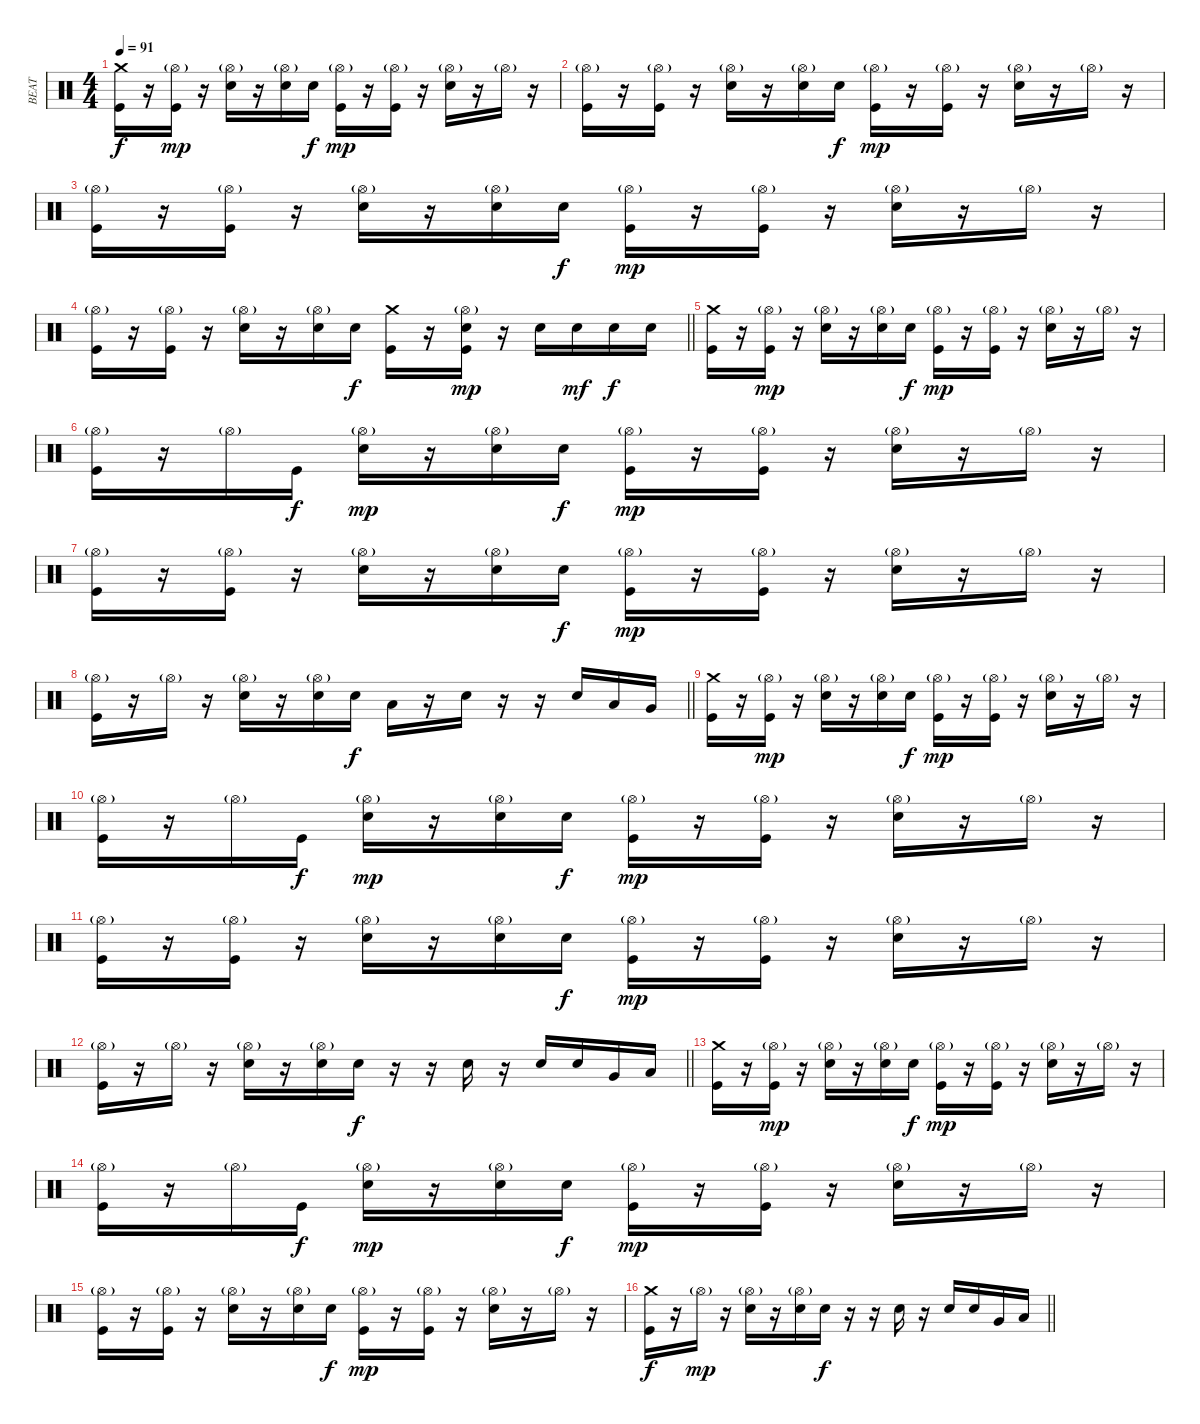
\track ("BEAT" "BEAT") {instrument percussion}
\staff {score}
\articulation defaults
\ts (4 4)
\section ("" "")
\tempo 91
\clef neutral
\ks c
("Crash medium (hit)" "Kick (hit)").16{dy f} r.16 ("Hi-Hat (open)"{g} "Kick (hit)").16{dy mp} r.16 ("Hi-Hat (open)"{g} "Electric Snare (hit)").16 r.16 ("Hi-Hat (open)"{g} "Electric Snare (hit)").16 "Electric Snare (hit)".16{dy f} ("Hi-Hat (open)"{g} "Kick (hit)").16{dy mp} r.16 ("Hi-Hat (open)"{g} "Kick (hit)").16 r.16 ("Hi-Hat (open)"{g} "Electric Snare (hit)").16 r.16 "Hi-Hat (open)"{g}.16 r.16 |
("Hi-Hat (open)"{g} "Kick (hit)").16 r.16 ("Hi-Hat (open)"{g} "Kick (hit)").16 r.16 ("Hi-Hat (open)"{g} "Electric Snare (hit)").16 r.16 ("Hi-Hat (open)"{g} "Electric Snare (hit)").16 "Electric Snare (hit)".16{dy f} ("Hi-Hat (open)"{g} "Kick (hit)").16{dy mp} r.16 ("Hi-Hat (open)"{g} "Kick (hit)").16 r.16 ("Hi-Hat (open)"{g} "Electric Snare (hit)").16 r.16 "Hi-Hat (open)"{g}.16 r.16 |
("Hi-Hat (open)"{g} "Kick (hit)").16 r.16 ("Hi-Hat (open)"{g} "Kick (hit)").16 r.16 ("Hi-Hat (open)"{g} "Electric Snare (hit)").16 r.16 ("Hi-Hat (open)"{g} "Electric Snare (hit)").16 "Electric Snare (hit)".16{dy f} ("Hi-Hat (open)"{g} "Kick (hit)").16{dy mp} r.16 ("Hi-Hat (open)"{g} "Kick (hit)").16 r.16 ("Hi-Hat (open)"{g} "Electric Snare (hit)").16 r.16 "Hi-Hat (open)"{g}.16 r.16 |
\barLineRight lightlight
("Hi-Hat (open)"{g} "Kick (hit)").16 r.16 ("Hi-Hat (open)"{g} "Kick (hit)").16 r.16 ("Hi-Hat (open)"{g} "Electric Snare (hit)").16 r.16 ("Hi-Hat (open)"{g} "Electric Snare (hit)").16 "Electric Snare (hit)".16{dy f} ("Crash medium (hit)" "Kick (hit)").16 r.16 ("Hi-Hat (open)"{g} "Electric Snare (hit)" "Kick (hit)").16{dy mp} r.16 "Electric Snare (hit)".16 "Electric Snare (hit)".16{dy mf} "Electric Snare (hit)".16{dy f} "Electric Snare (hit)".16 |
("Crash medium (hit)" "Kick (hit)").16 r.16 ("Hi-Hat (open)"{g} "Kick (hit)").16{dy mp} r.16 ("Hi-Hat (open)"{g} "Electric Snare (hit)").16 r.16 ("Hi-Hat (open)"{g} "Electric Snare (hit)").16 "Electric Snare (hit)".16{dy f} ("Hi-Hat (open)"{g} "Kick (hit)").16{dy mp} r.16 ("Hi-Hat (open)"{g} "Kick (hit)").16 r.16 ("Hi-Hat (open)"{g} "Electric Snare (hit)").16 r.16 "Hi-Hat (open)"{g}.16 r.16 |
("Hi-Hat (open)"{g} "Kick (hit)").16 r.16 "Hi-Hat (open)"{g}.16 "Kick (hit)".16{dy f} ("Hi-Hat (open)"{g} "Electric Snare (hit)").16{dy mp} r.16 ("Hi-Hat (open)"{g} "Electric Snare (hit)").16 "Electric Snare (hit)".16{dy f} ("Hi-Hat (open)"{g} "Kick (hit)").16{dy mp} r.16 ("Hi-Hat (open)"{g} "Kick (hit)").16 r.16 ("Hi-Hat (open)"{g} "Electric Snare (hit)").16 r.16 "Hi-Hat (open)"{g}.16 r.16 |
("Hi-Hat (open)"{g} "Kick (hit)").16 r.16 ("Hi-Hat (open)"{g} "Kick (hit)").16 r.16 ("Hi-Hat (open)"{g} "Electric Snare (hit)").16 r.16 ("Hi-Hat (open)"{g} "Electric Snare (hit)").16 "Electric Snare (hit)".16{dy f} ("Hi-Hat (open)"{g} "Kick (hit)").16{dy mp} r.16 ("Hi-Hat (open)"{g} "Kick (hit)").16 r.16 ("Hi-Hat (open)"{g} "Electric Snare (hit)").16 r.16 "Hi-Hat (open)"{g}.16 r.16 |
\barLineRight lightlight
("Hi-Hat (open)"{g} "Kick (hit)").16 r.16 "Hi-Hat (open)"{g}.16 r.16 ("Hi-Hat (open)"{g} "Electric Snare (hit)").16 r.16 ("Hi-Hat (open)"{g} "Electric Snare (hit)").16 "Electric Snare (hit)".16{dy f} "Low Tom (hit)".16 r.16 "Electric Snare (hit)".16 r.16 r.16 "Electric Snare (hit)".16 "Low Tom (hit)".16 "Very Low Tom (hit)".16 |
\section ("" "")
("Crash medium (hit)" "Kick (hit)").16 r.16 ("Hi-Hat (open)"{g} "Kick (hit)").16{dy mp} r.16 ("Hi-Hat (open)"{g} "Electric Snare (hit)").16 r.16 ("Hi-Hat (open)"{g} "Electric Snare (hit)").16 "Electric Snare (hit)".16{dy f} ("Hi-Hat (open)"{g} "Kick (hit)").16{dy mp} r.16 ("Hi-Hat (open)"{g} "Kick (hit)").16 r.16 ("Hi-Hat (open)"{g} "Electric Snare (hit)").16 r.16 "Hi-Hat (open)"{g}.16 r.16 |
("Hi-Hat (open)"{g} "Kick (hit)").16 r.16 "Hi-Hat (open)"{g}.16 "Kick (hit)".16{dy f} ("Hi-Hat (open)"{g} "Electric Snare (hit)").16{dy mp} r.16 ("Hi-Hat (open)"{g} "Electric Snare (hit)").16 "Electric Snare (hit)".16{dy f} ("Hi-Hat (open)"{g} "Kick (hit)").16{dy mp} r.16 ("Hi-Hat (open)"{g} "Kick (hit)").16 r.16 ("Hi-Hat (open)"{g} "Electric Snare (hit)").16 r.16 "Hi-Hat (open)"{g}.16 r.16 |
("Hi-Hat (open)"{g} "Kick (hit)").16 r.16 ("Hi-Hat (open)"{g} "Kick (hit)").16 r.16 ("Hi-Hat (open)"{g} "Electric Snare (hit)").16 r.16 ("Hi-Hat (open)"{g} "Electric Snare (hit)").16 "Electric Snare (hit)".16{dy f} ("Hi-Hat (open)"{g} "Kick (hit)").16{dy mp} r.16 ("Hi-Hat (open)"{g} "Kick (hit)").16 r.16 ("Hi-Hat (open)"{g} "Electric Snare (hit)").16 r.16 "Hi-Hat (open)"{g}.16 r.16 |
\barLineRight lightlight
("Hi-Hat (open)"{g} "Kick (hit)").16 r.16 "Hi-Hat (open)"{g}.16 r.16 ("Hi-Hat (open)"{g} "Electric Snare (hit)").16 r.16 ("Hi-Hat (open)"{g} "Electric Snare (hit)").16 "Electric Snare (hit)".16{dy f} r.16 r.16 "Electric Snare (hit)".16 r.16 "Electric Snare (hit)".16 "Electric Snare (hit)".16 "Very Low Tom (hit)".16 "Low Floor Tom (hit)".16 |
\section ("" "")
("Crash medium (hit)" "Kick (hit)").16 r.16 ("Hi-Hat (open)"{g} "Kick (hit)").16{dy mp} r.16 ("Hi-Hat (open)"{g} "Electric Snare (hit)").16 r.16 ("Hi-Hat (open)"{g} "Electric Snare (hit)").16 "Electric Snare (hit)".16{dy f} ("Hi-Hat (open)"{g} "Kick (hit)").16{dy mp} r.16 ("Hi-Hat (open)"{g} "Kick (hit)").16 r.16 ("Hi-Hat (open)"{g} "Electric Snare (hit)").16 r.16 "Hi-Hat (open)"{g}.16 r.16 |
("Hi-Hat (open)"{g} "Kick (hit)").16 r.16 "Hi-Hat (open)"{g}.16 "Kick (hit)".16{dy f} ("Hi-Hat (open)"{g} "Electric Snare (hit)").16{dy mp} r.16 ("Hi-Hat (open)"{g} "Electric Snare (hit)").16 "Electric Snare (hit)".16{dy f} ("Hi-Hat (open)"{g} "Kick (hit)").16{dy mp} r.16 ("Hi-Hat (open)"{g} "Kick (hit)").16 r.16 ("Hi-Hat (open)"{g} "Electric Snare (hit)").16 r.16 "Hi-Hat (open)"{g}.16 r.16 |
("Hi-Hat (open)"{g} "Kick (hit)").16 r.16 ("Hi-Hat (open)"{g} "Kick (hit)").16 r.16 ("Hi-Hat (open)"{g} "Electric Snare (hit)").16 r.16 ("Hi-Hat (open)"{g} "Electric Snare (hit)").16 "Electric Snare (hit)".16{dy f} ("Hi-Hat (open)"{g} "Kick (hit)").16{dy mp} r.16 ("Hi-Hat (open)"{g} "Kick (hit)").16 r.16 ("Hi-Hat (open)"{g} "Electric Snare (hit)").16 r.16 "Hi-Hat (open)"{g}.16 r.16 |
\barLineRight lightlight
("Crash medium (hit)" "Kick (hit)").16{dy f} r.16 "Hi-Hat (open)"{g}.16{dy mp} r.16 ("Hi-Hat (open)"{g} "Electric Snare (hit)").16 r.16 ("Hi-Hat (open)"{g} "Electric Snare (hit)").16 "Electric Snare (hit)".16{dy f} r.16 r.16 "Electric Snare (hit)".16 r.16 "Electric Snare (hit)".16 "Electric Snare (hit)".16 "Very Low Tom (hit)".16 "Low Floor Tom (hit)".16
